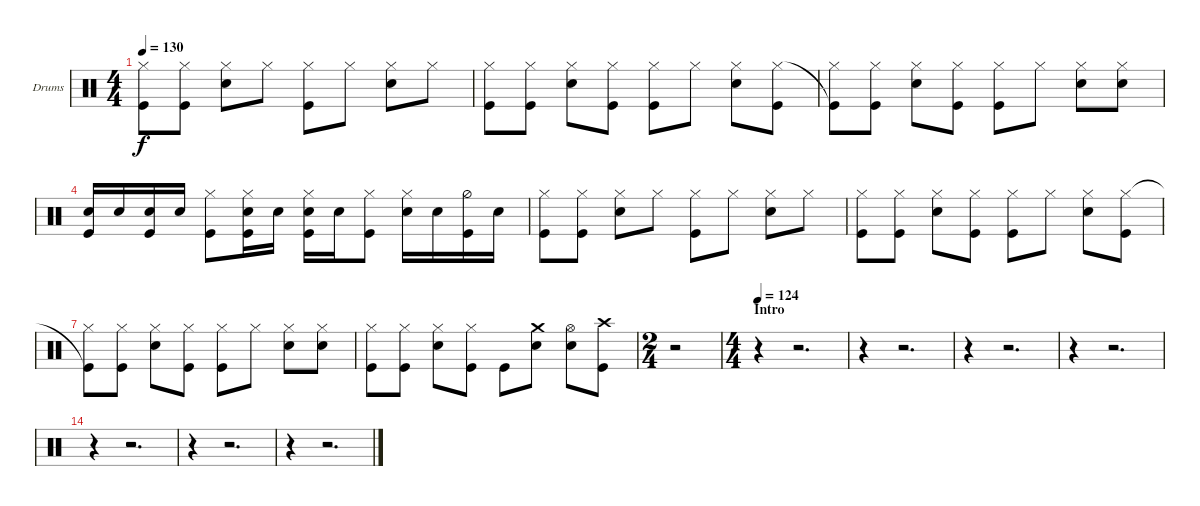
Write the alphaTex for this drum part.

\bracketExtendMode nobrackets
\firstSystemTrackNameOrientation horizontal
\otherSystemsTrackNameOrientation horizontal
\defaultBarNumberDisplay FirstOfSystem
\track ("Drumkit" "Drums") {instrument percussion}
\staff {score}
\articulation defaults
\ts (4 4)
\scale
0.308824
\tempo 130
\accidentals auto
\clef neutral
\ottava regular
\simile none
\ks c
("Kick (hit)" "Hi-Hat (closed)").8{dy f} ("Kick (hit)" "Hi-Hat (closed)").8 ("Snare (hit) 2" "Hi-Hat (closed)").8 "Hi-Hat (closed)".8 ("Kick (hit)" "Hi-Hat (closed)").8 "Hi-Hat (closed)".8 ("Snare (hit) 2" "Hi-Hat (closed)").8 "Hi-Hat (closed)".8 |
\scale
0.382353 ("Kick (hit)" "Hi-Hat (closed)").8 ("Kick (hit)" "Hi-Hat (closed)").8 ("Snare (hit) 2" "Hi-Hat (closed)").8 ("Kick (hit)" "Hi-Hat (closed)").8 ("Kick (hit)" "Hi-Hat (closed)").8 "Hi-Hat (closed)".8 ("Snare (hit) 2" "Hi-Hat (closed)").8 ("Hi-Hat (closed)" "Kick (hit)").8 |
\scale
0.308824 ("Kick (hit)"{t} "Hi-Hat (closed)").8 ("Kick (hit)" "Hi-Hat (closed)").8 ("Snare (hit) 2" "Hi-Hat (closed)").8 ("Hi-Hat (closed)" "Kick (hit)").8 ("Kick (hit)" "Hi-Hat (closed)").8 "Hi-Hat (closed)".8 ("Snare (hit) 2" "Hi-Hat (closed)").8 ("Snare (hit) 2" "Hi-Hat (closed)").8 |
\scale
0.308824 ("Snare (hit) 2" "Kick (hit)").16 "Snare (hit) 2".16 ("Snare (hit) 2" "Kick (hit)").16 "Snare (hit) 2".16 ("Kick (hit)" "Hi-Hat (closed)").8 ("Snare (hit) 2" "Hi-Hat (closed)" "Kick (hit)").16 "Snare (hit) 2".16 ("Snare (hit) 2" "Kick (hit)" "Hi-Hat (closed)").16 "Snare (hit) 2".16 ("Kick (hit)" "Hi-Hat (closed)").8 ("Hi-Hat (closed)" "Snare (hit) 2").16 "Snare (hit) 2".16 ("Kick (hit)" "Hi-Hat (half)").16 "Snare (hit) 2".16 |
\scale
0.308824 ("Kick (hit)" "Hi-Hat (closed)").8 ("Kick (hit)" "Hi-Hat (closed)").8 ("Snare (hit) 2" "Hi-Hat (closed)").8 "Hi-Hat (closed)".8 ("Kick (hit)" "Hi-Hat (closed)").8 "Hi-Hat (closed)".8 ("Snare (hit) 2" "Hi-Hat (closed)").8 "Hi-Hat (closed)".8 |
\scale
0.382353 ("Kick (hit)" "Hi-Hat (closed)").8 ("Kick (hit)" "Hi-Hat (closed)").8 ("Snare (hit) 2" "Hi-Hat (closed)").8 ("Kick (hit)" "Hi-Hat (closed)").8 ("Kick (hit)" "Hi-Hat (closed)").8 "Hi-Hat (closed)".8 ("Snare (hit) 2" "Hi-Hat (closed)").8 ("Hi-Hat (closed)" "Kick (hit)").8 |
\scale
0.397163 ("Kick (hit)"{t} "Hi-Hat (closed)").8 ("Kick (hit)" "Hi-Hat (closed)").8 ("Snare (hit) 2" "Hi-Hat (closed)").8 ("Hi-Hat (closed)" "Kick (hit)").8 ("Kick (hit)" "Hi-Hat (closed)").8 "Hi-Hat (closed)".8 ("Snare (hit) 2" "Hi-Hat (closed)").8 ("Snare (hit) 2" "Hi-Hat (closed)").8 |
\scale
0.397163 ("Kick (hit)" "Hi-Hat (closed)").8 ("Kick (hit)" "Hi-Hat (closed)").8 ("Snare (hit) 2" "Hi-Hat (closed)").8 ("Kick (hit)" "Hi-Hat (closed)").8 "Kick (hit)".8 ("Snare (hit) 2" "Crash medium (hit)").8 ("Snare (hit) 2" "Hi-Hat (open)").8 ("Kick (hit)" "Crash high (hit)").8 |
\ts (2 4)
\scale
0.205674 r.2 |
\ts (4 4)
\section ("" "Intro")
\scale
0.352941
\tempo 124
r.4 r.2{d} |
\scale
0.323529 r.4 r.2{d} |
\scale
0.323529 r.4 r.2{d} |
\scale
0.333333 r.4 r.2{d} |
\scale
0.333333 r.4 r.2{d} |
\scale
0.333333 r.4 r.2{d} |
\scale
0.34 r.4 r.2{d}
